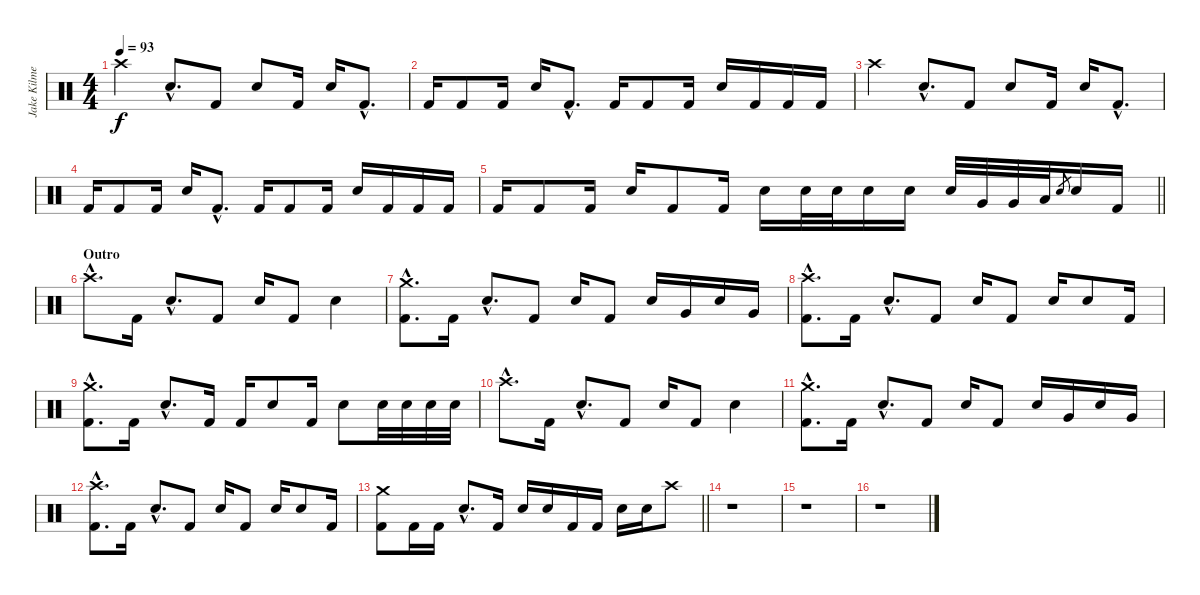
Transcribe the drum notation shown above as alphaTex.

\track ("Jake Kilmer (Drums)" "Jake Kilme") {instrument percussion}
\staff {score}
\articulation defaults
\ts (4 4)
\tempo 93
\clef neutral
\ks c "Crash high (hit)".4{dy f} "Electric Snare (hit)"{hac}.8{d} "Kick (hit) 2".8 "Electric Snare (hit)".8 "Kick (hit) 2".16 "Electric Snare (hit)".16 "Kick (hit) 2"{hac}.8{d}
|
"Kick (hit) 2".16 "Kick (hit) 2".8 "Kick (hit) 2".16 "Electric Snare (hit)".16 "Kick (hit) 2"{hac}.8{d} "Kick (hit) 2".16 "Kick (hit) 2".8 "Kick (hit) 2".16 "Electric Snare (hit)".16 "Kick (hit) 2".16 "Kick (hit) 2".16 "Kick (hit) 2".16 |
"Crash high (hit)".4 "Electric Snare (hit)"{hac}.8{d} "Kick (hit) 2".8 "Electric Snare (hit)".8 "Kick (hit) 2".16 "Electric Snare (hit)".16 "Kick (hit) 2"{hac}.8{d} |
"Kick (hit) 2".16 "Kick (hit) 2".8 "Kick (hit) 2".16 "Electric Snare (hit)".16 "Kick (hit) 2"{hac}.8{d} "Kick (hit) 2".16 "Kick (hit) 2".8 "Kick (hit) 2".16 "Electric Snare (hit)".16 "Kick (hit) 2".16 "Kick (hit) 2".16 "Kick (hit) 2".16 |
\barLineRight lightlight "Kick (hit) 2".16 "Kick (hit) 2".8 "Kick (hit) 2".16 "Electric Snare (hit)".16 "Kick (hit) 2".8 "Kick (hit) 2".16 "Electric Snare (hit)".16 "Electric Snare (hit)".32 "Electric Snare (hit)".32 "Electric Snare (hit)".16 "Electric Snare (hit)".16 "Electric Snare (hit)".32 "Very Low Tom (hit)".32 "Very Low Tom (hit)".32 "Low Floor Tom (hit)".32 "Electric Snare (hit)".8{gr} "Electric Snare (hit)".16 "Kick (hit) 2".16
|
\section ("" "Outro")
"Crash high (hit)"{hac}.8{d} "Kick (hit) 2".16 "Electric Snare (hit)"{hac}.8{d} "Kick (hit) 2".8 "Electric Snare (hit)".16 "Kick (hit) 2".8 "Electric Snare (hit)".4 |
("Crash medium (hit)"{hac} "Kick (hit) 2"{hac}).8{d} "Kick (hit) 2".16 "Electric Snare (hit)"{hac}.8{d} "Kick (hit) 2".8 "Electric Snare (hit)".16 "Kick (hit) 2".8 "Electric Snare (hit)".16 "Very Low Tom (hit)".16 "Electric Snare (hit)".16 "Very Low Tom (hit)".16 |
("Crash high (hit)"{hac} "Kick (hit) 2"{hac}).8{d} "Kick (hit) 2".16 "Electric Snare (hit)"{hac}.8{d} "Kick (hit) 2".8 "Electric Snare (hit)".16 "Kick (hit) 2".8 "Electric Snare (hit)".16 "Electric Snare (hit)".8 "Kick (hit) 2".16 |
("Crash medium (hit)"{hac} "Kick (hit) 2"{hac}).8{d} "Kick (hit) 2".16 "Electric Snare (hit)"{hac}.8{d} "Kick (hit) 2".16 "Kick (hit) 2".16 "Electric Snare (hit)".8 "Kick (hit) 2".16 "Electric Snare (hit)".8 "Electric Snare (hit)".32 "Electric Snare (hit)".32 "Electric Snare (hit)".32 "Electric Snare (hit)".32 |
"Crash high (hit)"{hac}.8{d} "Kick (hit) 2".16 "Electric Snare (hit)"{hac}.8{d} "Kick (hit) 2".8 "Electric Snare (hit)".16 "Kick (hit) 2".8 "Electric Snare (hit)".4 |
("Crash medium (hit)"{hac} "Kick (hit) 2"{hac}).8{d} "Kick (hit) 2".16 "Electric Snare (hit)"{hac}.8{d} "Kick (hit) 2".8 "Electric Snare (hit)".16 "Kick (hit) 2".8 "Electric Snare (hit)".16 "Very Low Tom (hit)".16 "Electric Snare (hit)".16 "Very Low Tom (hit)".16 |
("Crash high (hit)"{hac} "Kick (hit) 2"{hac}).8{d} "Kick (hit) 2".16 "Electric Snare (hit)"{hac}.8{d} "Kick (hit) 2".8 "Electric Snare (hit)".16 "Kick (hit) 2".8 "Electric Snare (hit)".16 "Electric Snare (hit)".8 "Kick (hit) 2".16 |
\barLineRight lightlight
("Crash medium (hit)" "Kick (hit) 2").8 "Kick (hit) 2".16 "Kick (hit) 2".16 "Electric Snare (hit)"{hac}.8{d} "Kick (hit) 2".16 "Electric Snare (hit)".16 "Electric Snare (hit)".16 "Kick (hit) 2".16 "Kick (hit) 2".16 "Electric Snare (hit)".16 "Electric Snare (hit)".16 "Crash high (hit)".8 |
r.1 |
r.1 |
r.1
